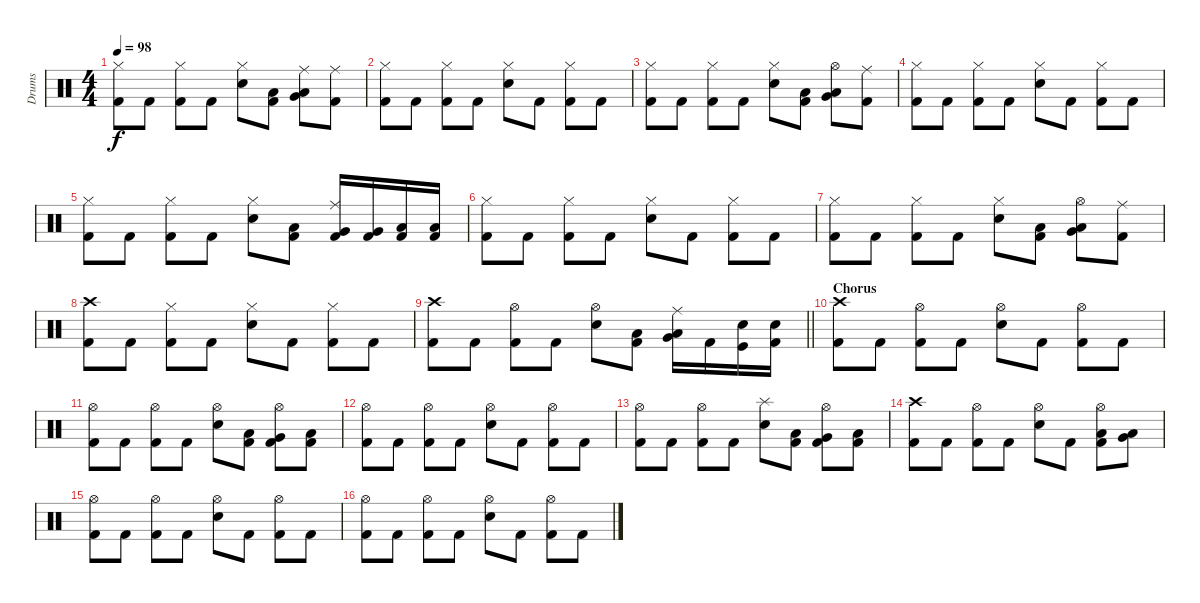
\track ("Drums" "Drums") {instrument percussion}
\staff {score}
\articulation defaults
\ts (4 4)
\tempo 98
\clef neutral
\ks c
("Hi-Hat (closed)" "Kick (hit) 2").8{dy f} "Kick (hit) 2".8 ("Hi-Hat (closed)" "Kick (hit) 2").8 "Kick (hit) 2".8 ("Hi-Hat (closed)" "Snare (hit) 2").8 ("Kick (hit) 2" "Low Tom (hit)").8 ("Ride (middle)" "Very Low Tom (hit)" "Low Floor Tom (hit)").8 ("Kick (hit) 2" "Ride (middle)").8 |
("Hi-Hat (closed)" "Kick (hit) 2").8 "Kick (hit) 2".8 ("Hi-Hat (closed)" "Kick (hit) 2").8 "Kick (hit) 2".8 ("Hi-Hat (closed)" "Snare (hit) 2").8 "Kick (hit) 2".8 ("Hi-Hat (closed)" "Kick (hit) 2").8 "Kick (hit) 2".8 |
("Hi-Hat (closed)" "Kick (hit) 2").8 "Kick (hit) 2".8 ("Hi-Hat (closed)" "Kick (hit) 2").8 "Kick (hit) 2".8 ("Hi-Hat (closed)" "Snare (hit) 2").8 ("Kick (hit) 2" "Low Tom (hit)").8 ("Hi-Hat (open)" "Very Low Tom (hit)" "Low Floor Tom (hit)").8 ("Kick (hit) 2" "Ride (middle)").8 |
("Hi-Hat (closed)" "Kick (hit) 2").8 "Kick (hit) 2".8 ("Hi-Hat (closed)" "Kick (hit) 2").8 "Kick (hit) 2".8 ("Hi-Hat (closed)" "Snare (hit) 2").8 "Kick (hit) 2".8 ("Hi-Hat (closed)" "Kick (hit) 2").8 "Kick (hit) 2".8 |
("Hi-Hat (closed)" "Kick (hit) 2").8 "Kick (hit) 2".8 ("Hi-Hat (closed)" "Kick (hit) 2").8 "Kick (hit) 2".8 ("Hi-Hat (closed)" "Snare (hit) 2").8 ("Kick (hit) 2" "Low Tom (hit)").8 ("Ride (middle)" "Very Low Tom (hit)" "Kick (hit) 2").16 ("Kick (hit) 2" "Very Low Tom (hit)").16 ("Kick (hit) 2" "Low Floor Tom (hit)").16 ("Kick (hit) 2" "Low Floor Tom (hit)").16 |
("Hi-Hat (closed)" "Kick (hit) 2").8 "Kick (hit) 2".8 ("Hi-Hat (closed)" "Kick (hit) 2").8 "Kick (hit) 2".8 ("Hi-Hat (closed)" "Snare (hit) 2").8 "Kick (hit) 2".8 ("Hi-Hat (closed)" "Kick (hit) 2").8 "Kick (hit) 2".8 |
("Hi-Hat (closed)" "Kick (hit) 2").8 "Kick (hit) 2".8 ("Hi-Hat (closed)" "Kick (hit) 2").8 "Kick (hit) 2".8 ("Hi-Hat (closed)" "Snare (hit) 2").8 ("Kick (hit) 2" "Low Tom (hit)").8 ("Hi-Hat (open)" "Very Low Tom (hit)" "Low Floor Tom (hit)").8 ("Kick (hit) 2" "Ride (middle)").8 |
("Crash high (hit)" "Kick (hit) 2").8 "Kick (hit) 2".8 ("Hi-Hat (closed)" "Kick (hit) 2").8 "Kick (hit) 2".8 ("Hi-Hat (closed)" "Snare (hit) 2").8 "Kick (hit) 2".8 ("Hi-Hat (closed)" "Kick (hit) 2").8 "Kick (hit) 2".8 |
\barLineRight lightlight
("Crash high (hit)" "Kick (hit) 2").8 "Kick (hit) 2".8 ("Hi-Hat (open)" "Kick (hit) 2").8 "Kick (hit) 2".8 ("Hi-Hat (open)" "Snare (hit) 2").8 ("Kick (hit) 2" "Low Tom (hit)").8 ("Ride (middle)" "Very Low Tom (hit)" "Low Floor Tom (hit)").16 "Kick (hit) 2".16 ("Snare (hit) 2" "Kick (hit)").16 ("Kick (hit) 2" "Snare (hit) 2").16 |
\section ("" "Chorus")
("Crash high (hit)" "Kick (hit) 2").8 "Kick (hit) 2".8 ("Hi-Hat (open)" "Kick (hit) 2").8 "Kick (hit) 2".8 ("Hi-Hat (open)" "Snare (hit) 2").8 "Kick (hit) 2".8 ("Hi-Hat (open)" "Kick (hit) 2").8 "Kick (hit) 2".8 |
("Hi-Hat (open)" "Kick (hit) 2").8 "Kick (hit) 2".8 ("Hi-Hat (open)" "Kick (hit) 2").8 "Kick (hit) 2".8 ("Hi-Hat (open)" "Snare (hit) 2").8 ("Kick (hit) 2" "Low Tom (hit)").8 ("Hi-Hat (open)" "Kick (hit) 2" "Very Low Tom (hit)").8 ("Kick (hit) 2" "Low Floor Tom (hit)").8 |
("Hi-Hat (open)" "Kick (hit) 2").8 "Kick (hit) 2".8 ("Hi-Hat (open)" "Kick (hit) 2").8 "Kick (hit) 2".8 ("Hi-Hat (open)" "Snare (hit) 2").8 "Kick (hit) 2".8 ("Hi-Hat (open)" "Kick (hit) 2").8 "Kick (hit) 2".8 |
("Hi-Hat (open)" "Kick (hit) 2").8 "Kick (hit) 2".8 ("Hi-Hat (open)" "Kick (hit) 2").8 "Kick (hit) 2".8 ("Splash (hit)" "Snare (hit) 2").8 ("Kick (hit) 2" "Low Tom (hit)").8 ("Hi-Hat (open)" "Kick (hit) 2" "Very Low Tom (hit)").8 ("Kick (hit) 2" "Low Floor Tom (hit)").8 |
("Crash high (hit)" "Kick (hit) 2").8 "Kick (hit) 2".8 ("Hi-Hat (open)" "Kick (hit) 2").8 "Kick (hit) 2".8 ("Hi-Hat (open)" "Snare (hit) 2").8 "Kick (hit) 2".8 ("Hi-Hat (open)" "Kick (hit) 2" "Low Floor Tom (hit)").8 ("Very Low Tom (hit)" "Low Floor Tom (hit)").8 |
("Hi-Hat (open)" "Kick (hit) 2").8 "Kick (hit) 2".8 ("Hi-Hat (open)" "Kick (hit) 2").8 "Kick (hit) 2".8 ("Hi-Hat (open)" "Snare (hit) 2").8 "Kick (hit) 2".8 ("Hi-Hat (open)" "Kick (hit) 2").8 "Kick (hit) 2".8 |
("Hi-Hat (open)" "Kick (hit) 2").8 "Kick (hit) 2".8 ("Hi-Hat (open)" "Kick (hit) 2").8 "Kick (hit) 2".8 ("Hi-Hat (open)" "Snare (hit) 2").8 "Kick (hit) 2".8 ("Hi-Hat (open)" "Kick (hit) 2").8 "Kick (hit) 2".8
